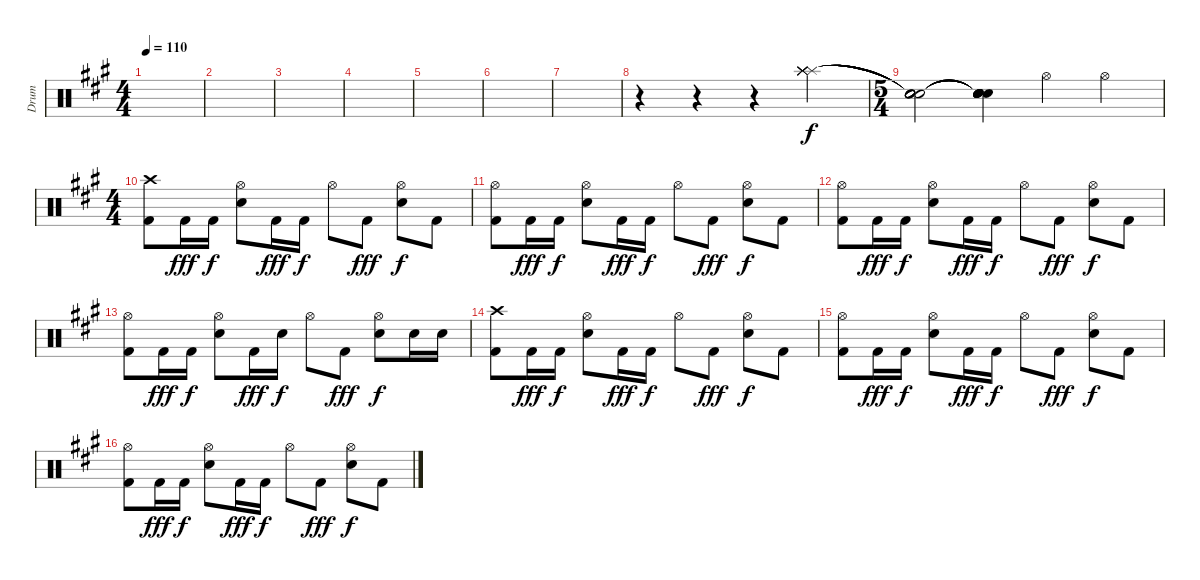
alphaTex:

\track ("Drum" "Drum") {instrument percussion}
\staff {score}
\articulation defaults
\ts (4 4)
\tempo 110
\clef neutral
\ks f#minor
|
|
|
|
|
|
|
r.4 r.4 r.4 ("Splash (hit)" "Splash (hit)" "Splash (hit)" "Splash (hit)" "Splash (hit)" "Splash (hit)").4{volume 16} |
\ts (5 4)
("Snare (hit)"{t} "Snare (hit)"{t} "Snare (hit)"{t} "Snare (hit)"{t} "Snare (hit)"{t} "Snare (hit)"{t}).2 ("Snare (hit)"{t} "Snare (hit)"{t} "Snare (hit)"{t} "Snare (hit)"{t} "Snare (hit)"{t} "Snare (hit)"{t}).4 "Hi-Hat (open)".4{volume 13} "Hi-Hat (open)".4 |
\ts (4 4)
("Crash high (hit)" "Kick (hit) 2").8 "Kick (hit) 2".16{dy fff} "Kick (hit) 2".16{dy f} ("Hi-Hat (open)" "Electric Snare (hit)").8 "Kick (hit) 2".16{dy fff} "Kick (hit) 2".16{dy f} "Hi-Hat (open)".8 "Kick (hit) 2".8{dy fff} ("Hi-Hat (open)" "Electric Snare (hit)").8{dy f} "Kick (hit) 2".8 |
("Hi-Hat (open)" "Kick (hit) 2").8 "Kick (hit) 2".16{dy fff} "Kick (hit) 2".16{dy f} ("Hi-Hat (open)" "Electric Snare (hit)").8 "Kick (hit) 2".16{dy fff} "Kick (hit) 2".16{dy f} "Hi-Hat (open)".8 "Kick (hit) 2".8{dy fff} ("Hi-Hat (open)" "Electric Snare (hit)").8{dy f} "Kick (hit) 2".8 |
("Hi-Hat (open)" "Kick (hit) 2").8 "Kick (hit) 2".16{dy fff} "Kick (hit) 2".16{dy f} ("Hi-Hat (open)" "Electric Snare (hit)").8 "Kick (hit) 2".16{dy fff} "Kick (hit) 2".16{dy f} "Hi-Hat (open)".8 "Kick (hit) 2".8{dy fff} ("Hi-Hat (open)" "Electric Snare (hit)").8{dy f} "Kick (hit) 2".8 |
("Hi-Hat (open)" "Kick (hit) 2").8 "Kick (hit) 2".16{dy fff} "Kick (hit) 2".16{dy f} ("Hi-Hat (open)" "Electric Snare (hit)").8 "Kick (hit) 2".16{dy fff} "Electric Snare (hit)".16{dy f} "Hi-Hat (open)".8 "Kick (hit) 2".8{dy fff} ("Hi-Hat (open)" "Electric Snare (hit)").8{dy f} "Electric Snare (hit)".16 "Electric Snare (hit)".16 |
("Crash high (hit)" "Kick (hit) 2").8 "Kick (hit) 2".16{dy fff} "Kick (hit) 2".16{dy f} ("Hi-Hat (open)" "Electric Snare (hit)").8 "Kick (hit) 2".16{dy fff} "Kick (hit) 2".16{dy f} "Hi-Hat (open)".8 "Kick (hit) 2".8{dy fff} ("Hi-Hat (open)" "Electric Snare (hit)").8{dy f} "Kick (hit) 2".8 |
("Hi-Hat (open)" "Kick (hit) 2").8 "Kick (hit) 2".16{dy fff} "Kick (hit) 2".16{dy f} ("Hi-Hat (open)" "Electric Snare (hit)").8 "Kick (hit) 2".16{dy fff} "Kick (hit) 2".16{dy f} "Hi-Hat (open)".8 "Kick (hit) 2".8{dy fff} ("Hi-Hat (open)" "Electric Snare (hit)").8{dy f} "Kick (hit) 2".8 |
("Hi-Hat (open)" "Kick (hit) 2").8 "Kick (hit) 2".16{dy fff} "Kick (hit) 2".16{dy f} ("Hi-Hat (open)" "Electric Snare (hit)").8 "Kick (hit) 2".16{dy fff} "Kick (hit) 2".16{dy f} "Hi-Hat (open)".8 "Kick (hit) 2".8{dy fff} ("Hi-Hat (open)" "Electric Snare (hit)").8{dy f} "Kick (hit) 2".8
